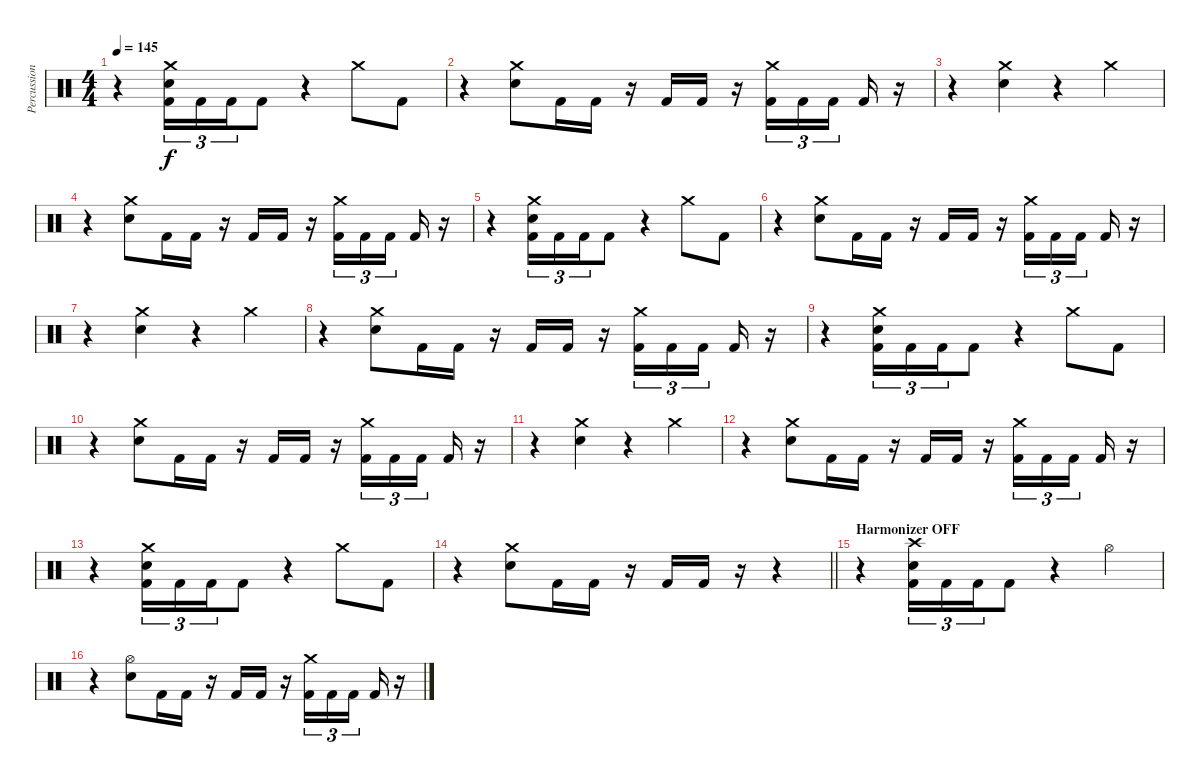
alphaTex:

\track ("Percussion" "Percussion") {instrument percussion}
\staff {score}
\articulation defaults
\ts (4 4)
\tempo 145
\clef neutral
\ks c
r.4{dy f} ("Crash medium (hit)" "Electric Snare (hit)" "Kick (hit) 2").16{tu (3 2)} "Kick (hit) 2".16{tu (3 2)} "Kick (hit) 2".16{tu (3 2) beam merge} "Kick (hit) 2".8 r.4 "Crash medium (hit)".8 "Kick (hit) 2".8 |
r.4 ("Crash medium (hit)" "Electric Snare (hit)").8{beam merge} "Kick (hit) 2".16{beam merge} "Kick (hit) 2".16 r.16{beam merge} "Kick (hit) 2".16 "Kick (hit) 2".16 r.16 ("Crash medium (hit)" "Kick (hit) 2").16{tu (3 2)} "Kick (hit) 2".16{tu (3 2)} "Kick (hit) 2".16{tu (3 2) beam splitsecondary} "Kick (hit) 2".16 r.16 |
r.4{beam merge} ("Crash medium (hit)" "Electric Snare (hit)").4 r.4 "Crash medium (hit)".4 |
r.4 ("Crash medium (hit)" "Electric Snare (hit)").8{beam merge} "Kick (hit) 2".16{beam merge} "Kick (hit) 2".16 r.16{beam merge} "Kick (hit) 2".16 "Kick (hit) 2".16 r.16 ("Crash medium (hit)" "Kick (hit) 2").16{tu (3 2)} "Kick (hit) 2".16{tu (3 2)} "Kick (hit) 2".16{tu (3 2) beam splitsecondary} "Kick (hit) 2".16 r.16 |
r.4 ("Crash medium (hit)" "Electric Snare (hit)" "Kick (hit) 2").16{tu (3 2)} "Kick (hit) 2".16{tu (3 2)} "Kick (hit) 2".16{tu (3 2) beam merge} "Kick (hit) 2".8 r.4 "Crash medium (hit)".8 "Kick (hit) 2".8 |
r.4 ("Crash medium (hit)" "Electric Snare (hit)").8{beam merge} "Kick (hit) 2".16{beam merge} "Kick (hit) 2".16 r.16{beam merge} "Kick (hit) 2".16 "Kick (hit) 2".16 r.16 ("Crash medium (hit)" "Kick (hit) 2").16{tu (3 2)} "Kick (hit) 2".16{tu (3 2)} "Kick (hit) 2".16{tu (3 2) beam splitsecondary} "Kick (hit) 2".16 r.16 |
r.4{beam merge} ("Crash medium (hit)" "Electric Snare (hit)").4 r.4 "Crash medium (hit)".4 |
r.4 ("Crash medium (hit)" "Electric Snare (hit)").8{beam merge} "Kick (hit) 2".16{beam merge} "Kick (hit) 2".16 r.16{beam merge} "Kick (hit) 2".16 "Kick (hit) 2".16 r.16 ("Crash medium (hit)" "Kick (hit) 2").16{tu (3 2)} "Kick (hit) 2".16{tu (3 2)} "Kick (hit) 2".16{tu (3 2) beam splitsecondary} "Kick (hit) 2".16 r.16 |
r.4 ("Crash medium (hit)" "Electric Snare (hit)" "Kick (hit) 2").16{tu (3 2)} "Kick (hit) 2".16{tu (3 2)} "Kick (hit) 2".16{tu (3 2) beam merge} "Kick (hit) 2".8 r.4 "Crash medium (hit)".8 "Kick (hit) 2".8 |
r.4 ("Crash medium (hit)" "Electric Snare (hit)").8{beam merge} "Kick (hit) 2".16{beam merge} "Kick (hit) 2".16 r.16{beam merge} "Kick (hit) 2".16 "Kick (hit) 2".16 r.16 ("Crash medium (hit)" "Kick (hit) 2").16{tu (3 2)} "Kick (hit) 2".16{tu (3 2)} "Kick (hit) 2".16{tu (3 2) beam splitsecondary} "Kick (hit) 2".16 r.16 |
r.4{beam merge} ("Crash medium (hit)" "Electric Snare (hit)").4 r.4 "Crash medium (hit)".4 |
r.4 ("Crash medium (hit)" "Electric Snare (hit)").8{beam merge} "Kick (hit) 2".16{beam merge} "Kick (hit) 2".16 r.16{beam merge} "Kick (hit) 2".16 "Kick (hit) 2".16 r.16 ("Crash medium (hit)" "Kick (hit) 2").16{tu (3 2)} "Kick (hit) 2".16{tu (3 2)} "Kick (hit) 2".16{tu (3 2) beam splitsecondary} "Kick (hit) 2".16 r.16 |
r.4 ("Crash medium (hit)" "Electric Snare (hit)" "Kick (hit) 2").16{tu (3 2)} "Kick (hit) 2".16{tu (3 2)} "Kick (hit) 2".16{tu (3 2) beam merge} "Kick (hit) 2".8 r.4 "Crash medium (hit)".8 "Kick (hit) 2".8 |
\barLineRight lightlight
r.4 ("Crash medium (hit)" "Electric Snare (hit)").8{beam merge} "Kick (hit) 2".16{beam merge} "Kick (hit) 2".16 r.16{beam merge} "Kick (hit) 2".16 "Kick (hit) 2".16 r.16{beam merge} r.4 |
\section ("" "Harmonizer OFF")
r.4 ("Crash high (hit)" "Electric Snare (hit)" "Kick (hit) 2").16{tu (3 2)} "Kick (hit) 2".16{tu (3 2)} "Kick (hit) 2".16{tu (3 2) beam merge} "Kick (hit) 2".8 r.4 "Hi-Hat (open)".4 |
r.4 ("Hi-Hat (open)" "Electric Snare (hit)").8{beam merge} "Kick (hit) 2".16{beam merge} "Kick (hit) 2".16 r.16{beam merge} "Kick (hit) 2".16 "Kick (hit) 2".16 r.16 ("Crash medium (hit)" "Kick (hit) 2").16{tu (3 2)} "Kick (hit) 2".16{tu (3 2)} "Kick (hit) 2".16{tu (3 2) beam splitsecondary} "Kick (hit) 2".16 r.16
